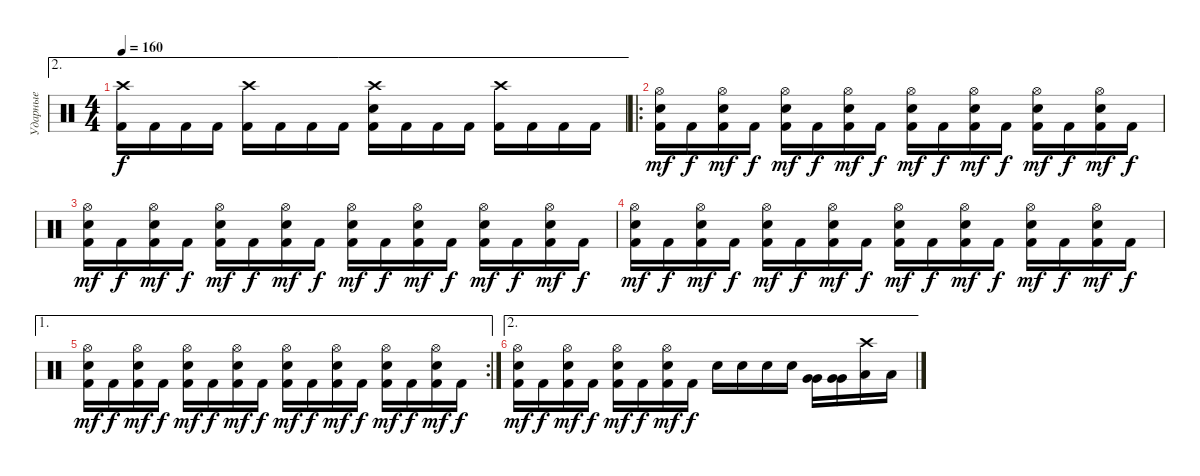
\track ("Ударные" "Ударные") {instrument percussion}
\staff {score}
\articulation defaults
\ae 2
\ts (4 4)
\tempo 160
\clef neutral
\ks c
("Crash high (hit)" "Kick (hit) 2").16{dy f} "Kick (hit) 2".16 "Kick (hit) 2".16 "Kick (hit) 2".16 ("Crash high (hit)" "Kick (hit) 2").16 "Kick (hit) 2".16 "Kick (hit) 2".16 "Kick (hit) 2".16 ("Crash high (hit)" "Snare (hit) 2" "Kick (hit) 2").16 "Kick (hit) 2".16 "Kick (hit) 2".16 "Kick (hit) 2".16 ("Crash high (hit)" "Kick (hit) 2").16 "Kick (hit) 2".16 "Kick (hit) 2".16 "Kick (hit) 2".16 |
\ro
("Hi-Hat (open)" "Snare (hit) 2" "Kick (hit) 2").16{dy mf} "Kick (hit) 2".16{dy f} ("Hi-Hat (open)" "Snare (hit) 2" "Kick (hit) 2").16{dy mf} "Kick (hit) 2".16{dy f} ("Hi-Hat (open)" "Snare (hit) 2" "Kick (hit) 2").16{dy mf} "Kick (hit) 2".16{dy f} ("Hi-Hat (open)" "Snare (hit) 2" "Kick (hit) 2").16{dy mf} "Kick (hit) 2".16{dy f} ("Hi-Hat (open)" "Snare (hit) 2" "Kick (hit) 2").16{dy mf} "Kick (hit) 2".16{dy f} ("Hi-Hat (open)" "Snare (hit) 2" "Kick (hit) 2").16{dy mf} "Kick (hit) 2".16{dy f} ("Hi-Hat (open)" "Snare (hit) 2" "Kick (hit) 2").16{dy mf} "Kick (hit) 2".16{dy f} ("Hi-Hat (open)" "Snare (hit) 2" "Kick (hit) 2").16{dy mf} "Kick (hit) 2".16{dy f} |
("Hi-Hat (open)" "Snare (hit) 2" "Kick (hit) 2").16{dy mf} "Kick (hit) 2".16{dy f} ("Hi-Hat (open)" "Snare (hit) 2" "Kick (hit) 2").16{dy mf} "Kick (hit) 2".16{dy f} ("Hi-Hat (open)" "Snare (hit) 2" "Kick (hit) 2").16{dy mf} "Kick (hit) 2".16{dy f} ("Hi-Hat (open)" "Snare (hit) 2" "Kick (hit) 2").16{dy mf} "Kick (hit) 2".16{dy f} ("Hi-Hat (open)" "Snare (hit) 2" "Kick (hit) 2").16{dy mf} "Kick (hit) 2".16{dy f} ("Hi-Hat (open)" "Snare (hit) 2" "Kick (hit) 2").16{dy mf} "Kick (hit) 2".16{dy f} ("Hi-Hat (open)" "Snare (hit) 2" "Kick (hit) 2").16{dy mf} "Kick (hit) 2".16{dy f} ("Hi-Hat (open)" "Snare (hit) 2" "Kick (hit) 2").16{dy mf} "Kick (hit) 2".16{dy f} |
("Hi-Hat (open)" "Snare (hit) 2" "Kick (hit) 2").16{dy mf} "Kick (hit) 2".16{dy f} ("Hi-Hat (open)" "Snare (hit) 2" "Kick (hit) 2").16{dy mf} "Kick (hit) 2".16{dy f} ("Hi-Hat (open)" "Snare (hit) 2" "Kick (hit) 2").16{dy mf} "Kick (hit) 2".16{dy f} ("Hi-Hat (open)" "Snare (hit) 2" "Kick (hit) 2").16{dy mf} "Kick (hit) 2".16{dy f} ("Hi-Hat (open)" "Snare (hit) 2" "Kick (hit) 2").16{dy mf} "Kick (hit) 2".16{dy f} ("Hi-Hat (open)" "Snare (hit) 2" "Kick (hit) 2").16{dy mf} "Kick (hit) 2".16{dy f} ("Hi-Hat (open)" "Snare (hit) 2" "Kick (hit) 2").16{dy mf} "Kick (hit) 2".16{dy f} ("Hi-Hat (open)" "Snare (hit) 2" "Kick (hit) 2").16{dy mf} "Kick (hit) 2".16{dy f} |
\ae 1
\rc 2
("Hi-Hat (open)" "Snare (hit) 2" "Kick (hit) 2").16{dy mf} "Kick (hit) 2".16{dy f} ("Hi-Hat (open)" "Snare (hit) 2" "Kick (hit) 2").16{dy mf} "Kick (hit) 2".16{dy f} ("Hi-Hat (open)" "Snare (hit) 2" "Kick (hit) 2").16{dy mf} "Kick (hit) 2".16{dy f} ("Hi-Hat (open)" "Snare (hit) 2" "Kick (hit) 2").16{dy mf} "Kick (hit) 2".16{dy f} ("Hi-Hat (open)" "Snare (hit) 2" "Kick (hit) 2").16{dy mf} "Kick (hit) 2".16{dy f} ("Hi-Hat (open)" "Snare (hit) 2" "Kick (hit) 2").16{dy mf} "Kick (hit) 2".16{dy f} ("Hi-Hat (open)" "Snare (hit) 2" "Kick (hit) 2").16{dy mf} "Kick (hit) 2".16{dy f} ("Hi-Hat (open)" "Snare (hit) 2" "Kick (hit) 2").16{dy mf} "Kick (hit) 2".16{dy f} |
\ae 2
("Hi-Hat (open)" "Snare (hit) 2" "Kick (hit) 2").16{dy mf} "Kick (hit) 2".16{dy f} ("Hi-Hat (open)" "Snare (hit) 2" "Kick (hit) 2").16{dy mf} "Kick (hit) 2".16{dy f} ("Hi-Hat (open)" "Snare (hit) 2" "Kick (hit) 2").16{dy mf} "Kick (hit) 2".16{dy f} ("Hi-Hat (open)" "Snare (hit) 2" "Kick (hit) 2").16{dy mf} "Kick (hit) 2".16{dy f} "Snare (hit) 2".16 "Snare (hit) 2".16 "Snare (hit) 2".16 "Snare (hit) 2".16 ("Very Low Tom (hit)" "Very Low Tom (hit)").16 ("Very Low Tom (hit)" "Very Low Tom (hit)").16 ("Crash high (hit)" "Low Floor Tom (hit)").16 "Low Floor Tom (hit)".16
